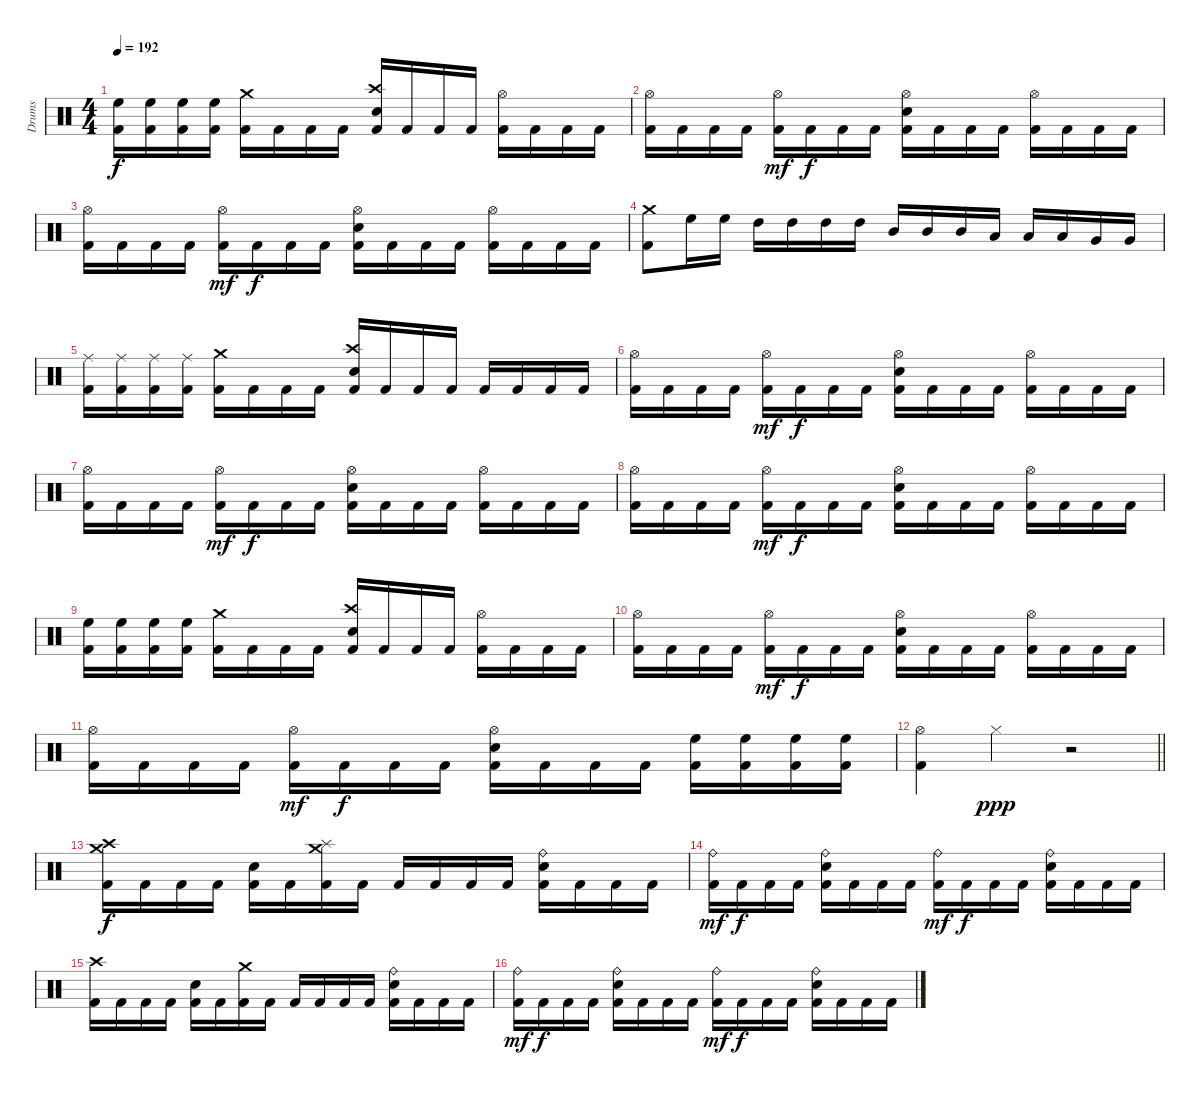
\track ("Drums" "Drums") {instrument percussion}
\staff {score}
\articulation defaults
\ts (4 4)
\tempo 192
\clef neutral
\ks c
("High Floor Tom (hit)" "Kick (hit) 2").16{dy f} ("High Floor Tom (hit)" "Kick (hit) 2").16 ("High Floor Tom (hit)" "Kick (hit) 2").16 ("High Floor Tom (hit)" "Kick (hit) 2").16 ("Crash medium (hit)" "Kick (hit) 2").16 "Kick (hit) 2".16 "Kick (hit) 2".16 "Kick (hit) 2".16 ("Crash high (hit)" "Electric Snare (hit)" "Kick (hit) 2").16 "Kick (hit) 2".16 "Kick (hit) 2".16 "Kick (hit) 2".16 ("Hi-Hat (open)" "Kick (hit) 2").16 "Kick (hit) 2".16 "Kick (hit) 2".16 "Kick (hit) 2".16 |
("Hi-Hat (open)" "Kick (hit) 2").16 "Kick (hit) 2".16 "Kick (hit) 2".16 "Kick (hit) 2".16 ("Hi-Hat (open)" "Kick (hit) 2").16{dy mf} "Kick (hit) 2".16{dy f} "Kick (hit) 2".16 "Kick (hit) 2".16 ("Hi-Hat (open)" "Electric Snare (hit)" "Kick (hit) 2").16 "Kick (hit) 2".16 "Kick (hit) 2".16 "Kick (hit) 2".16 ("Hi-Hat (open)" "Kick (hit) 2").16 "Kick (hit) 2".16 "Kick (hit) 2".16 "Kick (hit) 2".16 |
("Hi-Hat (open)" "Kick (hit) 2").16 "Kick (hit) 2".16 "Kick (hit) 2".16 "Kick (hit) 2".16 ("Hi-Hat (open)" "Kick (hit) 2").16{dy mf} "Kick (hit) 2".16{dy f} "Kick (hit) 2".16 "Kick (hit) 2".16 ("Hi-Hat (open)" "Electric Snare (hit)" "Kick (hit) 2").16 "Kick (hit) 2".16 "Kick (hit) 2".16 "Kick (hit) 2".16 ("Hi-Hat (open)" "Kick (hit) 2").16 "Kick (hit) 2".16 "Kick (hit) 2".16 "Kick (hit) 2".16 |
("Crash medium (hit)" "Kick (hit) 2").8 "High Floor Tom (hit)".16 "High Floor Tom (hit)".16 "High Tom (hit)".16 "High Tom (hit)".16 "High Tom (hit)".16 "High Tom (hit)".16 "Mid Tom (hit)".16 "Mid Tom (hit)".16 "Mid Tom (hit)".16 "Low Tom (hit)".16 "Low Tom (hit)".16 "Low Tom (hit)".16 "Very Low Tom (hit)".16 "Very Low Tom (hit)".16 |
("Ride (middle)" "Kick (hit) 2").16 ("Ride (middle)" "Kick (hit) 2").16 ("Ride (middle)" "Kick (hit) 2").16 ("Ride (middle)" "Kick (hit) 2").16 ("Crash medium (hit)" "Kick (hit) 2").16 "Kick (hit) 2".16 "Kick (hit) 2".16 "Kick (hit) 2".16 ("Crash high (hit)" "Electric Snare (hit)" "Kick (hit) 2").16 "Kick (hit) 2".16 "Kick (hit) 2".16 "Kick (hit) 2".16 "Kick (hit) 2".16 "Kick (hit) 2".16 "Kick (hit) 2".16 "Kick (hit) 2".16 |
("Hi-Hat (open)" "Kick (hit) 2").16 "Kick (hit) 2".16 "Kick (hit) 2".16 "Kick (hit) 2".16 ("Hi-Hat (open)" "Kick (hit) 2").16{dy mf} "Kick (hit) 2".16{dy f} "Kick (hit) 2".16 "Kick (hit) 2".16 ("Hi-Hat (open)" "Electric Snare (hit)" "Kick (hit) 2").16 "Kick (hit) 2".16 "Kick (hit) 2".16 "Kick (hit) 2".16 ("Hi-Hat (open)" "Kick (hit) 2").16 "Kick (hit) 2".16 "Kick (hit) 2".16 "Kick (hit) 2".16 |
("Hi-Hat (open)" "Kick (hit) 2").16 "Kick (hit) 2".16 "Kick (hit) 2".16 "Kick (hit) 2".16 ("Hi-Hat (open)" "Kick (hit) 2").16{dy mf} "Kick (hit) 2".16{dy f} "Kick (hit) 2".16 "Kick (hit) 2".16 ("Hi-Hat (open)" "Electric Snare (hit)" "Kick (hit) 2").16 "Kick (hit) 2".16 "Kick (hit) 2".16 "Kick (hit) 2".16 ("Hi-Hat (open)" "Kick (hit) 2").16 "Kick (hit) 2".16 "Kick (hit) 2".16 "Kick (hit) 2".16 |
("Hi-Hat (open)" "Kick (hit) 2").16 "Kick (hit) 2".16 "Kick (hit) 2".16 "Kick (hit) 2".16 ("Hi-Hat (open)" "Kick (hit) 2").16{dy mf} "Kick (hit) 2".16{dy f} "Kick (hit) 2".16 "Kick (hit) 2".16 ("Hi-Hat (open)" "Electric Snare (hit)" "Kick (hit) 2").16 "Kick (hit) 2".16 "Kick (hit) 2".16 "Kick (hit) 2".16 ("Hi-Hat (open)" "Kick (hit) 2").16 "Kick (hit) 2".16 "Kick (hit) 2".16 "Kick (hit) 2".16 |
("High Floor Tom (hit)" "Kick (hit) 2").16 ("High Floor Tom (hit)" "Kick (hit) 2").16 ("High Floor Tom (hit)" "Kick (hit) 2").16 ("High Floor Tom (hit)" "Kick (hit) 2").16 ("Crash medium (hit)" "Kick (hit) 2").16 "Kick (hit) 2".16 "Kick (hit) 2".16 "Kick (hit) 2".16 ("Crash high (hit)" "Electric Snare (hit)" "Kick (hit) 2").16 "Kick (hit) 2".16 "Kick (hit) 2".16 "Kick (hit) 2".16 ("Hi-Hat (open)" "Kick (hit) 2").16 "Kick (hit) 2".16 "Kick (hit) 2".16 "Kick (hit) 2".16 |
("Hi-Hat (open)" "Kick (hit) 2").16 "Kick (hit) 2".16 "Kick (hit) 2".16 "Kick (hit) 2".16 ("Hi-Hat (open)" "Kick (hit) 2").16{dy mf} "Kick (hit) 2".16{dy f} "Kick (hit) 2".16 "Kick (hit) 2".16 ("Hi-Hat (open)" "Electric Snare (hit)" "Kick (hit) 2").16 "Kick (hit) 2".16 "Kick (hit) 2".16 "Kick (hit) 2".16 ("Hi-Hat (open)" "Kick (hit) 2").16 "Kick (hit) 2".16 "Kick (hit) 2".16 "Kick (hit) 2".16 |
("Hi-Hat (open)" "Kick (hit) 2").16 "Kick (hit) 2".16 "Kick (hit) 2".16 "Kick (hit) 2".16 ("Hi-Hat (open)" "Kick (hit) 2").16{dy mf} "Kick (hit) 2".16{dy f} "Kick (hit) 2".16 "Kick (hit) 2".16 ("Hi-Hat (open)" "Electric Snare (hit)" "Kick (hit) 2").16 "Kick (hit) 2".16 "Kick (hit) 2".16 "Kick (hit) 2".16 ("High Floor Tom (hit)" "Kick (hit) 2").16 ("High Floor Tom (hit)" "Kick (hit) 2").16 ("High Floor Tom (hit)" "Kick (hit) 2").16 ("High Floor Tom (hit)" "Kick (hit) 2").16 |
\barLineRight lightlight
("Hi-Hat (open)" "Kick (hit) 2").4 "Hi-Hat (closed)".4{dy ppp} r.2 |
("Crash high (hit)" "Crash medium (hit)" "Kick (hit) 2").16{dy f} "Kick (hit) 2".16 "Kick (hit) 2".16 "Kick (hit) 2".16 ("Electric Snare (hit)" "Kick (hit) 2").16 "Kick (hit) 2".16 ("Crash medium (hit)" "Splash (hit)" "Kick (hit) 2").16 "Kick (hit) 2".16 "Kick (hit) 2".16 "Kick (hit) 2".16 "Kick (hit) 2".16 "Kick (hit) 2".16 ("Ride (bell)" "Electric Snare (hit)" "Kick (hit) 2").16 "Kick (hit) 2".16 "Kick (hit) 2".16 "Kick (hit) 2".16 |
("Ride (bell)" "Kick (hit) 2").16{dy mf} "Kick (hit) 2".16{dy f} "Kick (hit) 2".16 "Kick (hit) 2".16 ("Ride (bell)" "Electric Snare (hit)" "Kick (hit) 2").16 "Kick (hit) 2".16 "Kick (hit) 2".16 "Kick (hit) 2".16 ("Ride (bell)" "Kick (hit) 2").16{dy mf} "Kick (hit) 2".16{dy f} "Kick (hit) 2".16 "Kick (hit) 2".16 ("Ride (bell)" "Electric Snare (hit)" "Kick (hit) 2").16 "Kick (hit) 2".16 "Kick (hit) 2".16 "Kick (hit) 2".16 |
("Crash high (hit)" "Kick (hit) 2").16 "Kick (hit) 2".16 "Kick (hit) 2".16 "Kick (hit) 2".16 ("Electric Snare (hit)" "Kick (hit) 2").16 "Kick (hit) 2".16 ("Crash medium (hit)" "Kick (hit) 2").16 "Kick (hit) 2".16 "Kick (hit) 2".16 "Kick (hit) 2".16 "Kick (hit) 2".16 "Kick (hit) 2".16 ("Ride (bell)" "Electric Snare (hit)" "Kick (hit) 2").16 "Kick (hit) 2".16 "Kick (hit) 2".16 "Kick (hit) 2".16 |
("Ride (bell)" "Kick (hit) 2").16{dy mf} "Kick (hit) 2".16{dy f} "Kick (hit) 2".16 "Kick (hit) 2".16 ("Ride (bell)" "Electric Snare (hit)" "Kick (hit) 2").16 "Kick (hit) 2".16 "Kick (hit) 2".16 "Kick (hit) 2".16 ("Ride (bell)" "Kick (hit) 2").16{dy mf} "Kick (hit) 2".16{dy f} "Kick (hit) 2".16 "Kick (hit) 2".16 ("Ride (bell)" "Electric Snare (hit)" "Kick (hit) 2").16 "Kick (hit) 2".16 "Kick (hit) 2".16 "Kick (hit) 2".16
